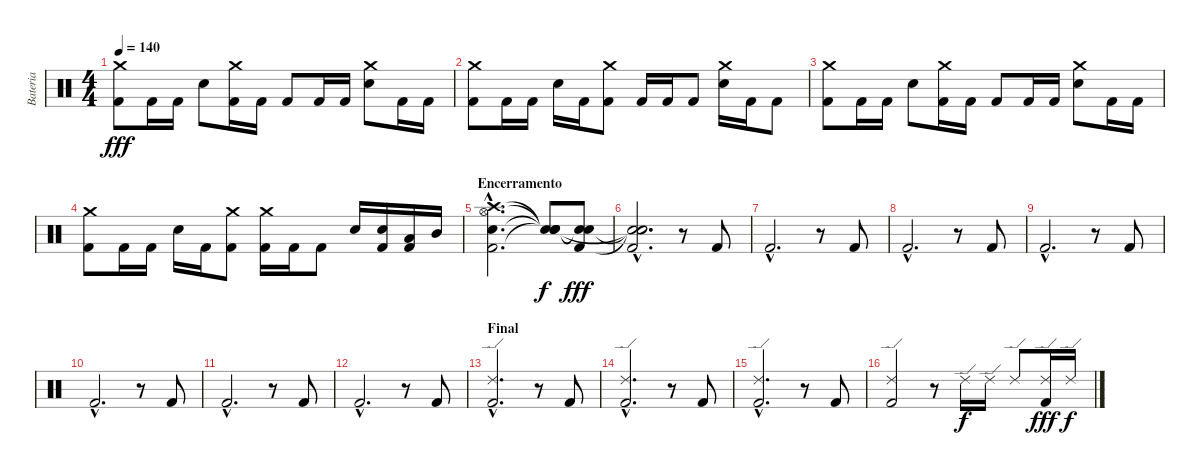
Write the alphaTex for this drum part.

\track ("Bateria" "Bateria") {instrument percussion}
\staff {score}
\articulation defaults
\ts (4 4)
\tempo 140
\clef neutral
\ks c
("Kick (hit) 2" "Crash medium (hit)").8{dy fff} "Kick (hit) 2".16 "Kick (hit) 2".16 "Metronome (bell)".8 ("Kick (hit) 2" "Crash medium (hit)").16 "Kick (hit) 2".16 "Kick (hit) 2".8 "Kick (hit) 2".16 "Kick (hit) 2".16 ("Metronome (bell)" "Crash medium (hit)").8 "Kick (hit) 2".16 "Kick (hit) 2".16 |
("Kick (hit) 2" "Crash medium (hit)").8 "Kick (hit) 2".16 "Kick (hit) 2".16 "Metronome (bell)".16 "Kick (hit) 2".16 ("Kick (hit) 2" "Crash medium (hit)").8 "Kick (hit) 2".16 "Kick (hit) 2".16 "Kick (hit) 2".8 ("Metronome (bell)" "Crash medium (hit)").16 "Kick (hit) 2".16 "Kick (hit) 2".8 |
("Kick (hit) 2" "Crash medium (hit)").8 "Kick (hit) 2".16 "Kick (hit) 2".16 "Metronome (bell)".8 ("Kick (hit) 2" "Crash medium (hit)").16 "Kick (hit) 2".16 "Kick (hit) 2".8 "Kick (hit) 2".16 "Kick (hit) 2".16 ("Metronome (bell)" "Crash medium (hit)").8 "Kick (hit) 2".16 "Kick (hit) 2".16 |
("Kick (hit) 2" "Crash medium (hit)").8 "Kick (hit) 2".16 "Kick (hit) 2".16 "Metronome (bell)".16 "Kick (hit) 2".16 ("Kick (hit) 2" "Crash medium (hit)").8 ("Kick (hit) 2" "Crash medium (hit)").16 "Kick (hit) 2".16 "Kick (hit) 2".8 "Metronome (bell)".16 ("Kick (hit) 2" "Metronome (bell)").16 ("Kick (hit) 2" "Low Tom (hit)").16 "Mid Tom (hit)".16 |
\section ("" "Encerramento")
("Hi-Hat (open)"{hac} "Kick (hit) 2"{hac} "Metronome (bell)"{hac} "Crash high (hit)"{hac}).2{d} ("Snare (hit)"{t} "Snare (hit)"{t} "Snare (hit)"{t} "Snare (hit)"{t}).8{dy f} ("Kick (hit) 2" "Snare (hit)"{t} "Snare (hit)"{t}).8{dy fff} |
("Snare (hit)"{hac t} "Kick (hit) 2"{hac} "Snare (hit)"{hac t} "Snare (hit)"{hac t}).2{d} r.8 "Kick (hit) 2".8 |
"Kick (hit) 2"{hac}.2{d} r.8 "Kick (hit) 2".8 |
"Kick (hit) 2"{hac}.2{d} r.8 "Kick (hit) 2".8 |
"Kick (hit) 2"{hac}.2{d} r.8 "Kick (hit) 2".8 |
"Kick (hit) 2"{hac}.2{d} r.8 "Kick (hit) 2".8 |
"Kick (hit) 2"{hac}.2{d} r.8 "Kick (hit) 2".8 |
"Kick (hit) 2"{hac}.2{d} r.8 "Kick (hit) 2".8 |
\section ("" "Final")
("Ride (edge) 2"{hac} "Kick (hit) 2"{hac}).2{d} r.8 "Kick (hit) 2".8 |
("Ride (edge) 2"{hac} "Kick (hit) 2"{hac}).2{d} r.8 "Kick (hit) 2".8 |
("Ride (edge) 2"{hac} "Kick (hit) 2"{hac}).2{d} r.8 "Kick (hit) 2".8 |
("Ride (edge) 2" "Kick (hit) 2").2 r.8 "Ride (edge) 2".16{dy f} "Ride (edge) 2".16 "Ride (edge) 2".8 ("Ride (edge) 2" "Kick (hit) 2").16{dy fff} "Ride (edge) 2".16{dy f}
